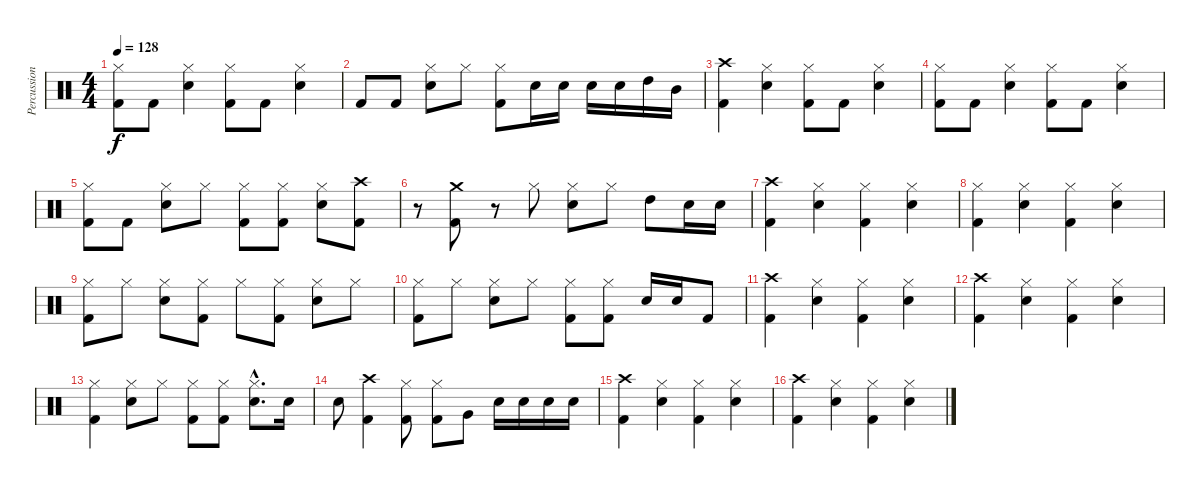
\track ("Percussion" "Percussion") {instrument percussion}
\staff {score}
\articulation defaults
\ts (4 4)
\tempo 128
\clef neutral
\ks c
("Kick (hit) 2" "Hi-Hat (closed)").8{dy f} "Kick (hit) 2".8 ("Snare (hit) 2" "Hi-Hat (closed)").4 ("Kick (hit) 2" "Hi-Hat (closed)").8 "Kick (hit) 2".8 ("Snare (hit) 2" "Hi-Hat (closed)").4 |
"Kick (hit) 2".8 "Kick (hit) 2".8 ("Snare (hit) 2" "Hi-Hat (closed)").8 "Hi-Hat (closed)".8 ("Kick (hit) 2" "Hi-Hat (closed)").8 "Snare (hit) 2".16 "Snare (hit) 2".16 "Snare (hit) 2".16 "Snare (hit) 2".16 "High Tom (hit)".16 "Mid Tom (hit)".16 |
("Kick (hit) 2" "Crash high (hit)").4 ("Snare (hit) 2" "Hi-Hat (closed)").4 ("Kick (hit) 2" "Hi-Hat (closed)").8 "Kick (hit) 2".8 ("Snare (hit) 2" "Hi-Hat (closed)").4 |
("Kick (hit) 2" "Hi-Hat (closed)").8 "Kick (hit) 2".8 ("Snare (hit) 2" "Hi-Hat (closed)").4 ("Kick (hit) 2" "Hi-Hat (closed)").8 "Kick (hit) 2".8 ("Snare (hit) 2" "Hi-Hat (closed)").4 |
("Kick (hit) 2" "Hi-Hat (closed)").8 "Kick (hit) 2".8 ("Snare (hit) 2" "Hi-Hat (closed)").8 "Hi-Hat (closed)".8 ("Kick (hit) 2" "Hi-Hat (closed)").8 ("Kick (hit) 2" "Hi-Hat (closed)").8 ("Snare (hit) 2" "Hi-Hat (closed)").8 ("Kick (hit) 2" "Crash high (hit)").8 |
r.8 ("Kick (hit) 2" "Crash medium (hit)").8 r.8 "Hi-Hat (closed)".8 ("Snare (hit) 2" "Hi-Hat (closed)").8 "Hi-Hat (closed)".8 "High Tom (hit)".8 "Snare (hit) 2".16 "Snare (hit) 2".16 |
("Kick (hit) 2" "Crash high (hit)").4 ("Snare (hit) 2" "Hi-Hat (closed)").4 ("Kick (hit) 2" "Hi-Hat (closed)").4 ("Snare (hit) 2" "Hi-Hat (closed)").4 |
("Kick (hit) 2" "Hi-Hat (closed)").4 ("Snare (hit) 2" "Hi-Hat (closed)").4 ("Kick (hit) 2" "Hi-Hat (closed)").4 ("Snare (hit) 2" "Hi-Hat (closed)").4 |
("Kick (hit) 2" "Hi-Hat (closed)").8 "Hi-Hat (closed)".8 ("Snare (hit) 2" "Hi-Hat (closed)").8 ("Kick (hit) 2" "Hi-Hat (closed)").8 "Hi-Hat (closed)".8 ("Kick (hit) 2" "Hi-Hat (closed)").8 ("Snare (hit) 2" "Hi-Hat (closed)").8 "Hi-Hat (closed)".8 |
("Kick (hit) 2" "Hi-Hat (closed)").8 "Hi-Hat (closed)".8 ("Snare (hit) 2" "Hi-Hat (closed)").8 "Hi-Hat (closed)".8 ("Kick (hit) 2" "Hi-Hat (closed)").8 ("Kick (hit) 2" "Hi-Hat (closed)").8 "Snare (hit) 2".16 "Snare (hit) 2".16 "Kick (hit) 2".8 |
("Kick (hit) 2" "Crash high (hit)").4 ("Snare (hit) 2" "Hi-Hat (closed)").4 ("Kick (hit) 2" "Hi-Hat (closed)").4 ("Snare (hit) 2" "Hi-Hat (closed)").4 |
("Kick (hit) 2" "Crash high (hit)").4 ("Snare (hit) 2" "Hi-Hat (closed)").4 ("Kick (hit) 2" "Hi-Hat (closed)").4 ("Snare (hit) 2" "Hi-Hat (closed)").4 |
("Kick (hit) 2" "Hi-Hat (closed)").4 ("Snare (hit) 2" "Hi-Hat (closed)").8 "Hi-Hat (closed)".8 ("Kick (hit) 2" "Hi-Hat (closed)").8 ("Kick (hit) 2" "Hi-Hat (closed)").8 ("Snare (hit) 2"{hac} "Hi-Hat (closed)"{hac}).8{d} "Snare (hit) 2".16 |
"Snare (hit) 2".8 ("Kick (hit) 2" "Crash high (hit)").4 ("Kick (hit) 2" "Hi-Hat (closed)").8 ("Kick (hit) 2" "Hi-Hat (closed)").8 "Very Low Tom (hit)".8 "Snare (hit) 2".16 "Snare (hit) 2".16 "Snare (hit) 2".16 "Snare (hit) 2".16 |
("Kick (hit) 2" "Crash high (hit)").4 ("Snare (hit) 2" "Hi-Hat (closed)").4 ("Kick (hit) 2" "Hi-Hat (closed)").4 ("Snare (hit) 2" "Hi-Hat (closed)").4 |
("Kick (hit) 2" "Crash high (hit)").4 ("Snare (hit) 2" "Hi-Hat (closed)").4 ("Kick (hit) 2" "Hi-Hat (closed)").4 ("Snare (hit) 2" "Hi-Hat (closed)").4
